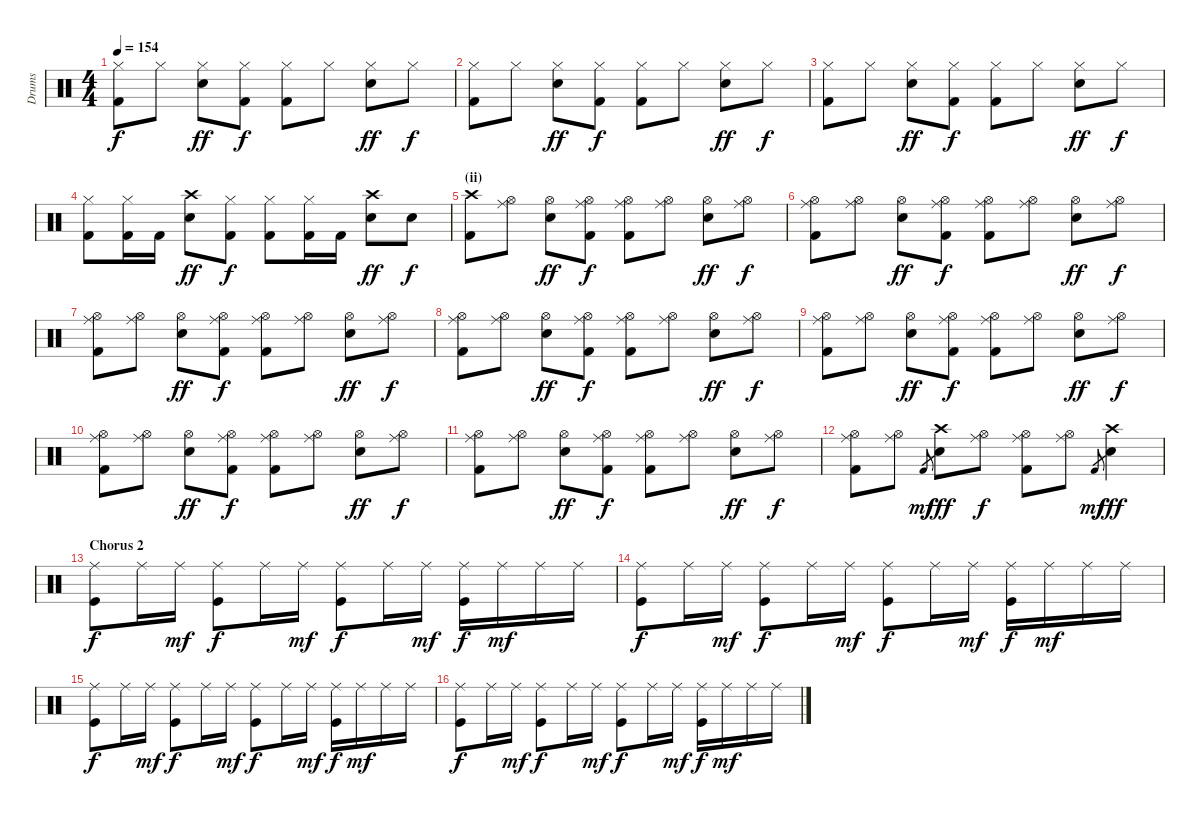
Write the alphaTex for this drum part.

\track ("Drums" "Drums") {instrument percussion}
\staff {score}
\articulation defaults
\ts (4 4)
\tempo 154
\clef neutral
\ks c
("Hi-Hat (closed)" "Kick (hit) 2").8{dy f} "Hi-Hat (closed)".8 ("Hi-Hat (closed)" "Electric Snare (hit)").8{dy ff} ("Hi-Hat (closed)" "Kick (hit) 2").8{dy f} ("Hi-Hat (closed)" "Kick (hit) 2").8 "Hi-Hat (closed)".8 ("Hi-Hat (closed)" "Electric Snare (hit)").8{dy ff} "Hi-Hat (closed)".8{dy f} |
("Hi-Hat (closed)" "Kick (hit) 2").8 "Hi-Hat (closed)".8 ("Hi-Hat (closed)" "Electric Snare (hit)").8{dy ff} ("Hi-Hat (closed)" "Kick (hit) 2").8{dy f} ("Hi-Hat (closed)" "Kick (hit) 2").8 "Hi-Hat (closed)".8 ("Hi-Hat (closed)" "Electric Snare (hit)").8{dy ff} "Hi-Hat (closed)".8{dy f} |
("Hi-Hat (closed)" "Kick (hit) 2").8 "Hi-Hat (closed)".8 ("Hi-Hat (closed)" "Electric Snare (hit)").8{dy ff} ("Hi-Hat (closed)" "Kick (hit) 2").8{dy f} ("Hi-Hat (closed)" "Kick (hit) 2").8 "Hi-Hat (closed)".8 ("Hi-Hat (closed)" "Electric Snare (hit)").8{dy ff} "Hi-Hat (closed)".8{dy f} |
("Hi-Hat (closed)" "Kick (hit) 2").8 ("Hi-Hat (closed)" "Kick (hit) 2").16 "Kick (hit) 2".16 ("Crash high (hit)" "Electric Snare (hit)").8{dy ff} ("Hi-Hat (closed)" "Kick (hit) 2").8{dy f} ("Hi-Hat (closed)" "Kick (hit) 2").8 ("Hi-Hat (closed)" "Kick (hit) 2").16 "Kick (hit) 2".16 ("Crash high (hit)" "Electric Snare (hit)").8{dy ff} "Electric Snare (hit)".8{dy f} |
\section ("" "(ii)")
("Crash high (hit)" "Kick (hit) 2").8 ("Hi-Hat (open)" "Ride (middle)").8 ("Hi-Hat (open)" "Electric Snare (hit)").8{dy ff} ("Hi-Hat (open)" "Ride (middle)" "Kick (hit) 2").8{dy f} ("Hi-Hat (open)" "Ride (middle)" "Kick (hit) 2").8 ("Hi-Hat (open)" "Ride (middle)").8 ("Hi-Hat (open)" "Electric Snare (hit)").8{dy ff} ("Hi-Hat (open)" "Ride (middle)").8{dy f} |
("Hi-Hat (open)" "Ride (middle)" "Kick (hit) 2").8 ("Hi-Hat (open)" "Ride (middle)").8 ("Hi-Hat (open)" "Electric Snare (hit)").8{dy ff} ("Hi-Hat (open)" "Ride (middle)" "Kick (hit) 2").8{dy f} ("Hi-Hat (open)" "Ride (middle)" "Kick (hit) 2").8 ("Hi-Hat (open)" "Ride (middle)").8 ("Hi-Hat (open)" "Electric Snare (hit)").8{dy ff} ("Hi-Hat (open)" "Ride (middle)").8{dy f} |
("Hi-Hat (open)" "Ride (middle)" "Kick (hit) 2").8 ("Hi-Hat (open)" "Ride (middle)").8 ("Hi-Hat (open)" "Electric Snare (hit)").8{dy ff} ("Hi-Hat (open)" "Ride (middle)" "Kick (hit) 2").8{dy f} ("Hi-Hat (open)" "Ride (middle)" "Kick (hit) 2").8 ("Hi-Hat (open)" "Ride (middle)").8 ("Hi-Hat (open)" "Electric Snare (hit)").8{dy ff} ("Hi-Hat (open)" "Ride (middle)").8{dy f} |
("Hi-Hat (open)" "Ride (middle)" "Kick (hit) 2").8 ("Hi-Hat (open)" "Ride (middle)").8 ("Hi-Hat (open)" "Electric Snare (hit)").8{dy ff} ("Hi-Hat (open)" "Ride (middle)" "Kick (hit) 2").8{dy f} ("Hi-Hat (open)" "Ride (middle)" "Kick (hit) 2").8 ("Hi-Hat (open)" "Ride (middle)").8 ("Hi-Hat (open)" "Electric Snare (hit)").8{dy ff} ("Hi-Hat (open)" "Ride (middle)").8{dy f} |
("Hi-Hat (open)" "Ride (middle)" "Kick (hit) 2").8 ("Hi-Hat (open)" "Ride (middle)").8 ("Hi-Hat (open)" "Electric Snare (hit)").8{dy ff} ("Hi-Hat (open)" "Ride (middle)" "Kick (hit) 2").8{dy f} ("Hi-Hat (open)" "Ride (middle)" "Kick (hit) 2").8 ("Hi-Hat (open)" "Ride (middle)").8 ("Hi-Hat (open)" "Electric Snare (hit)").8{dy ff} ("Hi-Hat (open)" "Ride (middle)").8{dy f} |
("Hi-Hat (open)" "Ride (middle)" "Kick (hit) 2").8 ("Hi-Hat (open)" "Ride (middle)").8 ("Hi-Hat (open)" "Electric Snare (hit)").8{dy ff} ("Hi-Hat (open)" "Ride (middle)" "Kick (hit) 2").8{dy f} ("Hi-Hat (open)" "Ride (middle)" "Kick (hit) 2").8 ("Hi-Hat (open)" "Ride (middle)").8 ("Hi-Hat (open)" "Electric Snare (hit)").8{dy ff} ("Hi-Hat (open)" "Ride (middle)").8{dy f} |
("Hi-Hat (open)" "Ride (middle)" "Kick (hit) 2").8 ("Hi-Hat (open)" "Ride (middle)").8 ("Hi-Hat (open)" "Electric Snare (hit)").8{dy ff} ("Hi-Hat (open)" "Ride (middle)" "Kick (hit) 2").8{dy f} ("Hi-Hat (open)" "Ride (middle)" "Kick (hit) 2").8 ("Hi-Hat (open)" "Ride (middle)").8 ("Hi-Hat (open)" "Electric Snare (hit)").8{dy ff} ("Hi-Hat (open)" "Ride (middle)").8{dy f} |
("Hi-Hat (open)" "Ride (middle)" "Kick (hit) 2").8 ("Hi-Hat (open)" "Ride (middle)").8 "Kick (hit) 2".8{gr dy mf} ("Crash high (hit)" "Electric Snare (hit)").8{dy fff} ("Hi-Hat (open)" "Ride (middle)").8{dy f} ("Hi-Hat (open)" "Ride (middle)" "Kick (hit) 2").8 ("Hi-Hat (open)" "Ride (middle)").8 "Kick (hit) 2".8{gr dy mf} ("Crash high (hit)" "Electric Snare (hit)").4{dy fff} |
\section ("" "Chorus 2")
("Ride (middle)" "Kick (hit)").8{dy f} "Ride (middle)".16 "Ride (middle)".16{dy mf} ("Ride (middle)" "Kick (hit)").8{dy f} "Ride (middle)".16 "Ride (middle)".16{dy mf} ("Ride (middle)" "Kick (hit)").8{dy f} "Ride (middle)".16 "Ride (middle)".16{dy mf} ("Ride (middle)" "Kick (hit)").16{dy f} "Ride (middle)".16{dy mf} "Ride (middle)".16 "Ride (middle)".16 |
("Ride (middle)" "Kick (hit)").8{dy f} "Ride (middle)".16 "Ride (middle)".16{dy mf} ("Ride (middle)" "Kick (hit)").8{dy f} "Ride (middle)".16 "Ride (middle)".16{dy mf} ("Ride (middle)" "Kick (hit)").8{dy f} "Ride (middle)".16 "Ride (middle)".16{dy mf} ("Ride (middle)" "Kick (hit)").16{dy f} "Ride (middle)".16{dy mf} "Ride (middle)".16 "Ride (middle)".16 |
("Ride (middle)" "Kick (hit)").8{dy f} "Ride (middle)".16 "Ride (middle)".16{dy mf} ("Ride (middle)" "Kick (hit)").8{dy f} "Ride (middle)".16 "Ride (middle)".16{dy mf} ("Ride (middle)" "Kick (hit)").8{dy f} "Ride (middle)".16 "Ride (middle)".16{dy mf} ("Ride (middle)" "Kick (hit)").16{dy f} "Ride (middle)".16{dy mf} "Ride (middle)".16 "Ride (middle)".16 |
("Ride (middle)" "Kick (hit)").8{dy f} "Ride (middle)".16 "Ride (middle)".16{dy mf} ("Ride (middle)" "Kick (hit)").8{dy f} "Ride (middle)".16 "Ride (middle)".16{dy mf} ("Ride (middle)" "Kick (hit)").8{dy f} "Ride (middle)".16 "Ride (middle)".16{dy mf} ("Ride (middle)" "Kick (hit)").16{dy f} "Ride (middle)".16{dy mf} "Ride (middle)".16 "Ride (middle)".16
